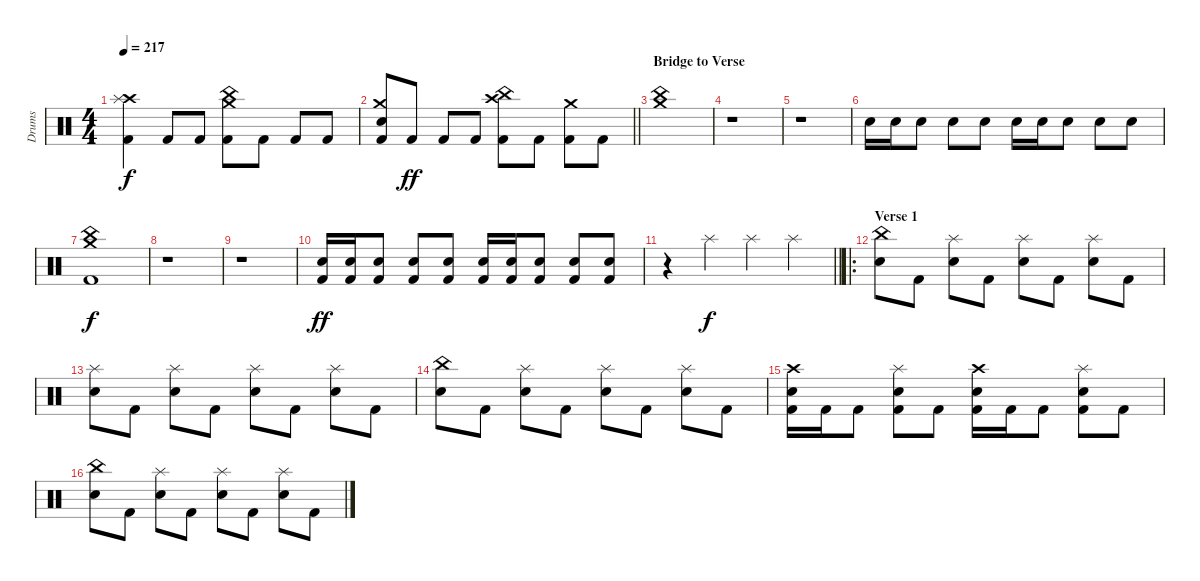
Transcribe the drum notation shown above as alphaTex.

\track ("Drums" "Drums") {instrument percussion}
\staff {score}
\articulation defaults
\ts (4 4)
\tempo 217
\clef neutral
\ks c
("Crash high (hit)" "Splash (hit)" "Kick (hit) 2").4{dy f} "Kick (hit) 2".8 "Kick (hit) 2".8 ("Crash medium (hit)" "China (hit)" "Kick (hit) 2").8 "Kick (hit) 2".8 "Kick (hit) 2".8 "Kick (hit) 2".8 |
\barLineRight lightlight
("Crash medium (hit)" "Electric Snare (hit)" "Kick (hit) 2").8 "Kick (hit) 2".8{dy ff} "Kick (hit) 2".8 "Kick (hit) 2".8 ("Crash high (hit)" "China (hit)" "Kick (hit) 2").8 "Kick (hit) 2".8 ("Crash medium (hit)" "Kick (hit) 2").8 "Kick (hit) 2".8 |
\section ("" "Bridge to Verse")
("Crash medium (hit)" "China (hit)").1 |
r.1 |
r.1 |
"Electric Snare (hit)".16 "Electric Snare (hit)".16 "Electric Snare (hit)".8 "Electric Snare (hit)".8 "Electric Snare (hit)".8 "Electric Snare (hit)".16 "Electric Snare (hit)".16 "Electric Snare (hit)".8 "Electric Snare (hit)".8 "Electric Snare (hit)".8 |
("Crash medium (hit)" "China (hit)" "Kick (hit) 2").1{dy f} |
r.1 |
r.1 |
("Electric Snare (hit)" "Kick (hit) 2").16{dy ff} ("Electric Snare (hit)" "Kick (hit) 2").16 ("Electric Snare (hit)" "Kick (hit) 2").8 ("Electric Snare (hit)" "Kick (hit) 2").8 ("Electric Snare (hit)" "Kick (hit) 2").8 ("Electric Snare (hit)" "Kick (hit) 2").16 ("Electric Snare (hit)" "Kick (hit) 2").16 ("Electric Snare (hit)" "Kick (hit) 2").8 ("Electric Snare (hit)" "Kick (hit) 2").8 ("Electric Snare (hit)" "Kick (hit) 2").8 |
\barLineRight lightlight
r.4 "Splash (hit)".4{dy f} "Splash (hit)".4 "Splash (hit)".4 |
\ro
\section ("" "Verse 1")
("China (hit)" "Electric Snare (hit)").8 "Kick (hit) 2".8 ("Splash (hit)" "Electric Snare (hit)").8 "Kick (hit) 2".8 ("Splash (hit)" "Electric Snare (hit)").8 "Kick (hit) 2".8 ("Splash (hit)" "Electric Snare (hit)").8 "Kick (hit) 2".8 |
("Splash (hit)" "Electric Snare (hit)").8 "Kick (hit) 2".8 ("Splash (hit)" "Electric Snare (hit)").8 "Kick (hit) 2".8 ("Splash (hit)" "Electric Snare (hit)").8 "Kick (hit) 2".8 ("Splash (hit)" "Electric Snare (hit)").8 "Kick (hit) 2".8 |
("China (hit)" "Electric Snare (hit)").8 "Kick (hit) 2".8 ("Splash (hit)" "Electric Snare (hit)").8 "Kick (hit) 2".8 ("Splash (hit)" "Electric Snare (hit)").8 "Kick (hit) 2".8 ("Splash (hit)" "Electric Snare (hit)").8 "Kick (hit) 2".8 |
("Crash high (hit)" "Electric Snare (hit)" "Kick (hit) 2").16 "Kick (hit) 2".16 "Kick (hit) 2".8 ("Splash (hit)" "Electric Snare (hit)" "Kick (hit) 2").8 "Kick (hit) 2".8 ("Crash high (hit)" "Electric Snare (hit)" "Kick (hit) 2").16 "Kick (hit) 2".16 "Kick (hit) 2".8 ("Splash (hit)" "Electric Snare (hit)" "Kick (hit) 2").8 "Kick (hit) 2".8 |
("China (hit)" "Electric Snare (hit)").8 "Kick (hit) 2".8 ("Splash (hit)" "Electric Snare (hit)").8 "Kick (hit) 2".8 ("Splash (hit)" "Electric Snare (hit)").8 "Kick (hit) 2".8 ("Splash (hit)" "Electric Snare (hit)").8 "Kick (hit) 2".8
